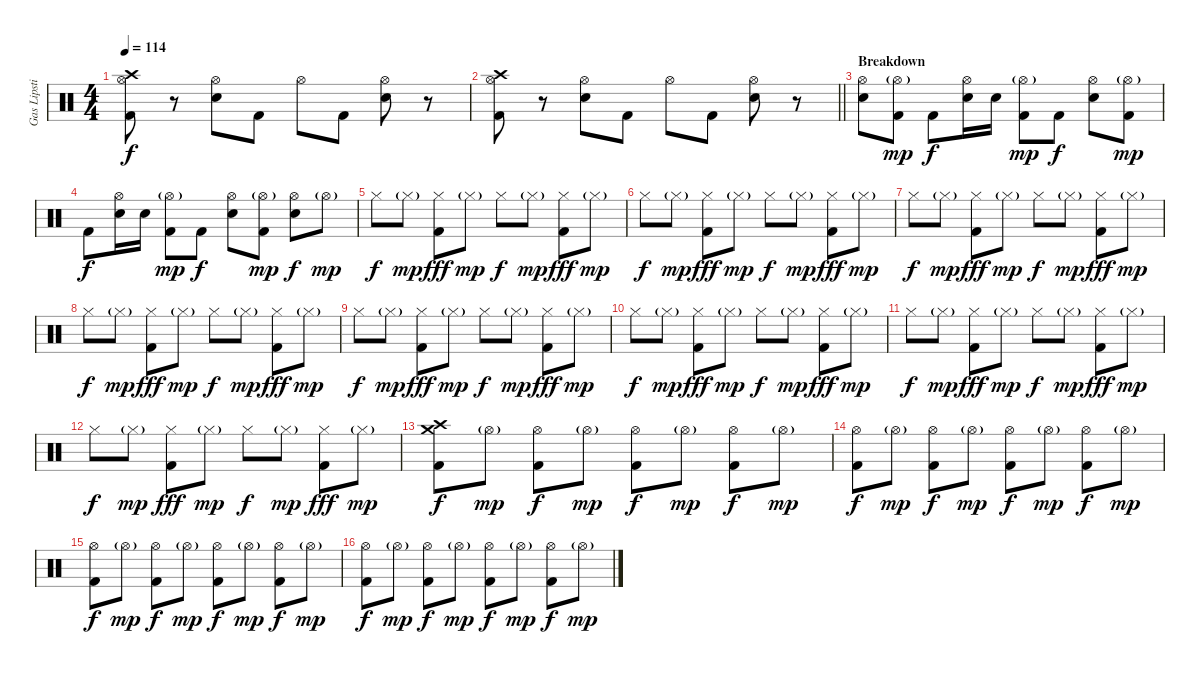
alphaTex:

\track ("Gas Lipstick (Drums)" "Gas Lipsti") {instrument percussion}
\staff {score}
\articulation defaults
\ts (4 4)
\tempo 114
\clef neutral
\ks c
("Crash high (hit)" "Hi-Hat (open)" "Kick (hit) 2").8{dy f} r.8 ("Hi-Hat (open)" "Snare (hit) 2").8 "Kick (hit) 2".8 "Hi-Hat (open)".8 "Kick (hit) 2".8 ("Hi-Hat (open)" "Snare (hit) 2").8 r.8 |
\barLineRight lightlight
("Crash high (hit)" "Hi-Hat (open)" "Kick (hit) 2").8 r.8 ("Hi-Hat (open)" "Snare (hit) 2").8 "Kick (hit) 2".8 "Hi-Hat (open)".8 "Kick (hit) 2".8 ("Hi-Hat (open)" "Snare (hit) 2").8 r.8 |
\section ("" "Breakdown")
("Hi-Hat (open)" "Snare (hit) 2").8 ("Hi-Hat (open)"{g} "Kick (hit) 2").8{dy mp} "Kick (hit) 2".8{dy f} ("Hi-Hat (open)" "Snare (hit) 2").16 "Snare (hit) 2".16 ("Hi-Hat (open)"{g} "Kick (hit) 2").8{dy mp} "Kick (hit) 2".8{dy f} ("Hi-Hat (open)" "Snare (hit) 2").8 ("Hi-Hat (open)"{g} "Kick (hit) 2").8{dy mp} |
"Kick (hit) 2".8{dy f} ("Hi-Hat (open)" "Snare (hit) 2").16 "Snare (hit) 2".16 ("Hi-Hat (open)"{g} "Kick (hit) 2").8{dy mp} "Kick (hit) 2".8{dy f} ("Hi-Hat (open)" "Snare (hit) 2").8 ("Hi-Hat (open)"{g} "Kick (hit) 2").8{dy mp} ("Hi-Hat (open)" "Snare (hit) 2").8{dy f} "Hi-Hat (open)"{g}.8{dy mp} |
"Hi-Hat (closed)".8{dy f} "Hi-Hat (closed)"{g}.8{dy mp} ("Hi-Hat (closed)" "Kick (hit) 2").8{dy fff} "Hi-Hat (closed)"{g}.8{dy mp} "Hi-Hat (closed)".8{dy f} "Hi-Hat (closed)"{g}.8{dy mp} ("Hi-Hat (closed)" "Kick (hit) 2").8{dy fff} "Hi-Hat (closed)"{g}.8{dy mp} |
"Hi-Hat (closed)".8{dy f} "Hi-Hat (closed)"{g}.8{dy mp} ("Hi-Hat (closed)" "Kick (hit) 2").8{dy fff} "Hi-Hat (closed)"{g}.8{dy mp} "Hi-Hat (closed)".8{dy f} "Hi-Hat (closed)"{g}.8{dy mp} ("Hi-Hat (closed)" "Kick (hit) 2").8{dy fff} "Hi-Hat (closed)"{g}.8{dy mp} |
"Hi-Hat (closed)".8{dy f} "Hi-Hat (closed)"{g}.8{dy mp} ("Hi-Hat (closed)" "Kick (hit) 2").8{dy fff} "Hi-Hat (closed)"{g}.8{dy mp} "Hi-Hat (closed)".8{dy f} "Hi-Hat (closed)"{g}.8{dy mp} ("Hi-Hat (closed)" "Kick (hit) 2").8{dy fff} "Hi-Hat (closed)"{g}.8{dy mp} |
"Hi-Hat (closed)".8{dy f} "Hi-Hat (closed)"{g}.8{dy mp} ("Hi-Hat (closed)" "Kick (hit) 2").8{dy fff} "Hi-Hat (closed)"{g}.8{dy mp} "Hi-Hat (closed)".8{dy f} "Hi-Hat (closed)"{g}.8{dy mp} ("Hi-Hat (closed)" "Kick (hit) 2").8{dy fff} "Hi-Hat (closed)"{g}.8{dy mp} |
"Hi-Hat (closed)".8{dy f} "Hi-Hat (closed)"{g}.8{dy mp} ("Hi-Hat (closed)" "Kick (hit) 2").8{dy fff} "Hi-Hat (closed)"{g}.8{dy mp} "Hi-Hat (closed)".8{dy f} "Hi-Hat (closed)"{g}.8{dy mp} ("Hi-Hat (closed)" "Kick (hit) 2").8{dy fff} "Hi-Hat (closed)"{g}.8{dy mp} |
"Hi-Hat (closed)".8{dy f} "Hi-Hat (closed)"{g}.8{dy mp} ("Hi-Hat (closed)" "Kick (hit) 2").8{dy fff} "Hi-Hat (closed)"{g}.8{dy mp} "Hi-Hat (closed)".8{dy f} "Hi-Hat (closed)"{g}.8{dy mp} ("Hi-Hat (closed)" "Kick (hit) 2").8{dy fff} "Hi-Hat (closed)"{g}.8{dy mp} |
"Hi-Hat (closed)".8{dy f} "Hi-Hat (closed)"{g}.8{dy mp} ("Hi-Hat (closed)" "Kick (hit) 2").8{dy fff} "Hi-Hat (closed)"{g}.8{dy mp} "Hi-Hat (closed)".8{dy f} "Hi-Hat (closed)"{g}.8{dy mp} ("Hi-Hat (closed)" "Kick (hit) 2").8{dy fff} "Hi-Hat (closed)"{g}.8{dy mp} |
"Hi-Hat (closed)".8{dy f} "Hi-Hat (closed)"{g}.8{dy mp} ("Hi-Hat (closed)" "Kick (hit) 2").8{dy fff} "Hi-Hat (closed)"{g}.8{dy mp} "Hi-Hat (closed)".8{dy f} "Hi-Hat (closed)"{g}.8{dy mp} ("Hi-Hat (closed)" "Kick (hit) 2").8{dy fff} "Hi-Hat (closed)"{g}.8{dy mp} |
("Crash medium (hit)" "Crash high (hit)" "Kick (hit) 2").8{dy f} "Hi-Hat (open)"{g}.8{dy mp} ("Hi-Hat (open)" "Kick (hit) 2").8{dy f} "Hi-Hat (open)"{g}.8{dy mp} ("Hi-Hat (open)" "Kick (hit) 2").8{dy f} "Hi-Hat (open)"{g}.8{dy mp} ("Hi-Hat (open)" "Kick (hit) 2").8{dy f} "Hi-Hat (open)"{g}.8{dy mp} |
("Hi-Hat (open)" "Kick (hit) 2").8{dy f} "Hi-Hat (open)"{g}.8{dy mp} ("Hi-Hat (open)" "Kick (hit) 2").8{dy f} "Hi-Hat (open)"{g}.8{dy mp} ("Hi-Hat (open)" "Kick (hit) 2").8{dy f} "Hi-Hat (open)"{g}.8{dy mp} ("Hi-Hat (open)" "Kick (hit) 2").8{dy f} "Hi-Hat (open)"{g}.8{dy mp} |
("Hi-Hat (open)" "Kick (hit) 2").8{dy f} "Hi-Hat (open)"{g}.8{dy mp} ("Hi-Hat (open)" "Kick (hit) 2").8{dy f} "Hi-Hat (open)"{g}.8{dy mp} ("Hi-Hat (open)" "Kick (hit) 2").8{dy f} "Hi-Hat (open)"{g}.8{dy mp} ("Hi-Hat (open)" "Kick (hit) 2").8{dy f} "Hi-Hat (open)"{g}.8{dy mp} |
("Hi-Hat (open)" "Kick (hit) 2").8{dy f} "Hi-Hat (open)"{g}.8{dy mp} ("Hi-Hat (open)" "Kick (hit) 2").8{dy f} "Hi-Hat (open)"{g}.8{dy mp} ("Hi-Hat (open)" "Kick (hit) 2").8{dy f} "Hi-Hat (open)"{g}.8{dy mp} ("Hi-Hat (open)" "Kick (hit) 2").8{dy f} "Hi-Hat (open)"{g}.8{dy mp}
